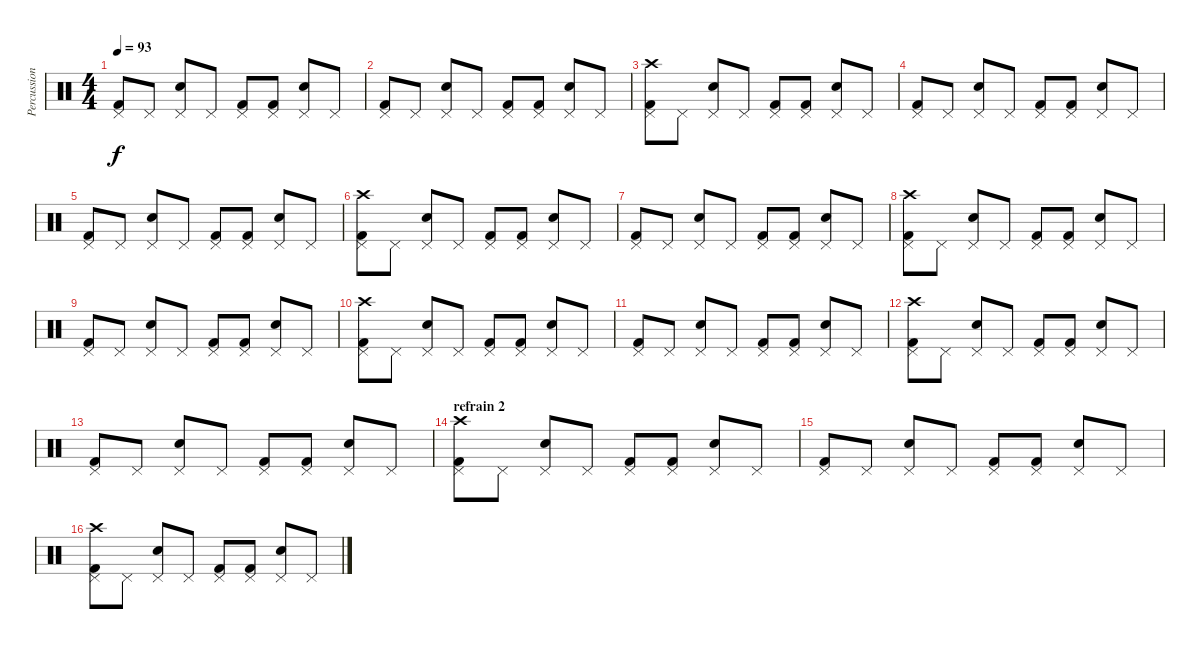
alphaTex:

\track ("Percussions" "Percussion") {instrument percussion}
\staff {score}
\articulation defaults
\ts (4 4)
\tempo 93
\clef neutral
\ks c
("Pedal Hi-Hat (hit)" "Kick (hit) 2").8{dy f} "Pedal Hi-Hat (hit)".8 ("Pedal Hi-Hat (hit)" "Electric Snare (hit)").8 "Pedal Hi-Hat (hit)".8 ("Pedal Hi-Hat (hit)" "Kick (hit) 2").8 ("Pedal Hi-Hat (hit)" "Kick (hit) 2").8 ("Pedal Hi-Hat (hit)" "Electric Snare (hit)").8 "Pedal Hi-Hat (hit)".8 |
("Pedal Hi-Hat (hit)" "Kick (hit) 2").8 "Pedal Hi-Hat (hit)".8 ("Pedal Hi-Hat (hit)" "Electric Snare (hit)").8 "Pedal Hi-Hat (hit)".8 ("Pedal Hi-Hat (hit)" "Kick (hit) 2").8 ("Pedal Hi-Hat (hit)" "Kick (hit) 2").8 ("Pedal Hi-Hat (hit)" "Electric Snare (hit)").8 "Pedal Hi-Hat (hit)".8 |
("Pedal Hi-Hat (hit)" "Crash high (hit)" "Kick (hit) 2").8 "Pedal Hi-Hat (hit)".8 ("Pedal Hi-Hat (hit)" "Electric Snare (hit)").8 "Pedal Hi-Hat (hit)".8 ("Pedal Hi-Hat (hit)" "Kick (hit) 2").8 ("Pedal Hi-Hat (hit)" "Kick (hit) 2").8 ("Pedal Hi-Hat (hit)" "Electric Snare (hit)").8 "Pedal Hi-Hat (hit)".8 |
("Pedal Hi-Hat (hit)" "Kick (hit) 2").8 "Pedal Hi-Hat (hit)".8 ("Pedal Hi-Hat (hit)" "Electric Snare (hit)").8 "Pedal Hi-Hat (hit)".8 ("Pedal Hi-Hat (hit)" "Kick (hit) 2").8 ("Pedal Hi-Hat (hit)" "Kick (hit) 2").8 ("Pedal Hi-Hat (hit)" "Electric Snare (hit)").8 "Pedal Hi-Hat (hit)".8 |
("Pedal Hi-Hat (hit)" "Kick (hit) 2").8 "Pedal Hi-Hat (hit)".8 ("Pedal Hi-Hat (hit)" "Electric Snare (hit)").8 "Pedal Hi-Hat (hit)".8 ("Pedal Hi-Hat (hit)" "Kick (hit) 2").8 ("Pedal Hi-Hat (hit)" "Kick (hit) 2").8 ("Pedal Hi-Hat (hit)" "Electric Snare (hit)").8 "Pedal Hi-Hat (hit)".8 |
("Pedal Hi-Hat (hit)" "Crash high (hit)" "Kick (hit) 2").8 "Pedal Hi-Hat (hit)".8 ("Pedal Hi-Hat (hit)" "Electric Snare (hit)").8 "Pedal Hi-Hat (hit)".8 ("Pedal Hi-Hat (hit)" "Kick (hit) 2").8 ("Pedal Hi-Hat (hit)" "Kick (hit) 2").8 ("Pedal Hi-Hat (hit)" "Electric Snare (hit)").8 "Pedal Hi-Hat (hit)".8 |
("Pedal Hi-Hat (hit)" "Kick (hit) 2").8 "Pedal Hi-Hat (hit)".8 ("Pedal Hi-Hat (hit)" "Electric Snare (hit)").8 "Pedal Hi-Hat (hit)".8 ("Pedal Hi-Hat (hit)" "Kick (hit) 2").8 ("Pedal Hi-Hat (hit)" "Kick (hit) 2").8 ("Pedal Hi-Hat (hit)" "Electric Snare (hit)").8 "Pedal Hi-Hat (hit)".8 |
("Pedal Hi-Hat (hit)" "Crash high (hit)" "Kick (hit) 2").8 "Pedal Hi-Hat (hit)".8 ("Pedal Hi-Hat (hit)" "Electric Snare (hit)").8 "Pedal Hi-Hat (hit)".8 ("Pedal Hi-Hat (hit)" "Kick (hit) 2").8 ("Pedal Hi-Hat (hit)" "Kick (hit) 2").8 ("Pedal Hi-Hat (hit)" "Electric Snare (hit)").8 "Pedal Hi-Hat (hit)".8 |
("Pedal Hi-Hat (hit)" "Kick (hit) 2").8 "Pedal Hi-Hat (hit)".8 ("Pedal Hi-Hat (hit)" "Electric Snare (hit)").8 "Pedal Hi-Hat (hit)".8 ("Pedal Hi-Hat (hit)" "Kick (hit) 2").8 ("Pedal Hi-Hat (hit)" "Kick (hit) 2").8 ("Pedal Hi-Hat (hit)" "Electric Snare (hit)").8 "Pedal Hi-Hat (hit)".8 |
("Pedal Hi-Hat (hit)" "Crash high (hit)" "Kick (hit) 2").8 "Pedal Hi-Hat (hit)".8 ("Pedal Hi-Hat (hit)" "Electric Snare (hit)").8 "Pedal Hi-Hat (hit)".8 ("Pedal Hi-Hat (hit)" "Kick (hit) 2").8 ("Pedal Hi-Hat (hit)" "Kick (hit) 2").8 ("Pedal Hi-Hat (hit)" "Electric Snare (hit)").8 "Pedal Hi-Hat (hit)".8 |
("Pedal Hi-Hat (hit)" "Kick (hit) 2").8 "Pedal Hi-Hat (hit)".8 ("Pedal Hi-Hat (hit)" "Electric Snare (hit)").8 "Pedal Hi-Hat (hit)".8 ("Pedal Hi-Hat (hit)" "Kick (hit) 2").8 ("Pedal Hi-Hat (hit)" "Kick (hit) 2").8 ("Pedal Hi-Hat (hit)" "Electric Snare (hit)").8 "Pedal Hi-Hat (hit)".8 |
("Pedal Hi-Hat (hit)" "Crash high (hit)" "Kick (hit) 2").8 "Pedal Hi-Hat (hit)".8 ("Pedal Hi-Hat (hit)" "Electric Snare (hit)").8 "Pedal Hi-Hat (hit)".8 ("Pedal Hi-Hat (hit)" "Kick (hit) 2").8 ("Pedal Hi-Hat (hit)" "Kick (hit) 2").8 ("Pedal Hi-Hat (hit)" "Electric Snare (hit)").8 "Pedal Hi-Hat (hit)".8 |
("Pedal Hi-Hat (hit)" "Kick (hit) 2").8 "Pedal Hi-Hat (hit)".8 ("Pedal Hi-Hat (hit)" "Electric Snare (hit)").8 "Pedal Hi-Hat (hit)".8 ("Pedal Hi-Hat (hit)" "Kick (hit) 2").8 ("Pedal Hi-Hat (hit)" "Kick (hit) 2").8 ("Pedal Hi-Hat (hit)" "Electric Snare (hit)").8 "Pedal Hi-Hat (hit)".8 |
\section ("" "refrain 2")
("Pedal Hi-Hat (hit)" "Crash high (hit)" "Kick (hit) 2").8 "Pedal Hi-Hat (hit)".8 ("Pedal Hi-Hat (hit)" "Electric Snare (hit)").8 "Pedal Hi-Hat (hit)".8 ("Pedal Hi-Hat (hit)" "Kick (hit) 2").8 ("Pedal Hi-Hat (hit)" "Kick (hit) 2").8 ("Pedal Hi-Hat (hit)" "Electric Snare (hit)").8 "Pedal Hi-Hat (hit)".8 |
("Pedal Hi-Hat (hit)" "Kick (hit) 2").8 "Pedal Hi-Hat (hit)".8 ("Pedal Hi-Hat (hit)" "Electric Snare (hit)").8 "Pedal Hi-Hat (hit)".8 ("Pedal Hi-Hat (hit)" "Kick (hit) 2").8 ("Pedal Hi-Hat (hit)" "Kick (hit) 2").8 ("Pedal Hi-Hat (hit)" "Electric Snare (hit)").8 "Pedal Hi-Hat (hit)".8 |
("Pedal Hi-Hat (hit)" "Crash high (hit)" "Kick (hit) 2").8 "Pedal Hi-Hat (hit)".8 ("Pedal Hi-Hat (hit)" "Electric Snare (hit)").8 "Pedal Hi-Hat (hit)".8 ("Pedal Hi-Hat (hit)" "Kick (hit) 2").8 ("Pedal Hi-Hat (hit)" "Kick (hit) 2").8 ("Pedal Hi-Hat (hit)" "Electric Snare (hit)").8 "Pedal Hi-Hat (hit)".8
